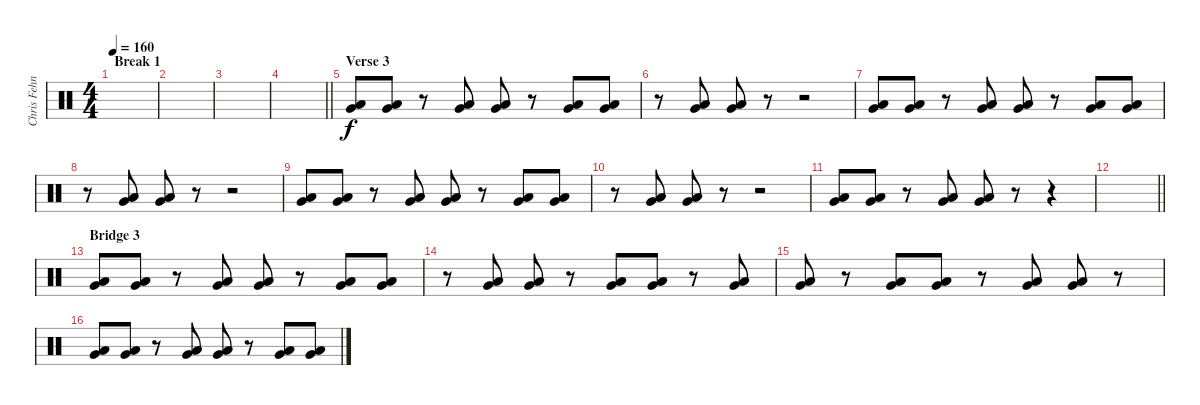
\track ("Chris Fehn" "Chris Fehn") {instrument percussion}
\staff {score}
\articulation defaults
\ts (4 4)
\section ("" "Break 1")
\tempo 160
\clef neutral
\ks c
|
|
|
\barLineRight lightlight
|
\section ("" "Verse 3")
("Very Low Tom (hit)" "Low Floor Tom (hit)").8 ("Very Low Tom (hit)" "Low Floor Tom (hit)").8 r.8 ("Very Low Tom (hit)" "Low Floor Tom (hit)").8 ("Very Low Tom (hit)" "Low Floor Tom (hit)").8 r.8 ("Very Low Tom (hit)" "Low Floor Tom (hit)").8 ("Very Low Tom (hit)" "Low Floor Tom (hit)").8 |
r.8 ("Very Low Tom (hit)" "Low Floor Tom (hit)").8 ("Very Low Tom (hit)" "Low Floor Tom (hit)").8 r.8 r.2 |
("Very Low Tom (hit)" "Low Floor Tom (hit)").8 ("Very Low Tom (hit)" "Low Floor Tom (hit)").8 r.8 ("Very Low Tom (hit)" "Low Floor Tom (hit)").8 ("Very Low Tom (hit)" "Low Floor Tom (hit)").8 r.8 ("Very Low Tom (hit)" "Low Floor Tom (hit)").8 ("Very Low Tom (hit)" "Low Floor Tom (hit)").8 |
r.8 ("Very Low Tom (hit)" "Low Floor Tom (hit)").8 ("Very Low Tom (hit)" "Low Floor Tom (hit)").8 r.8 r.2 |
("Very Low Tom (hit)" "Low Floor Tom (hit)").8 ("Very Low Tom (hit)" "Low Floor Tom (hit)").8 r.8 ("Very Low Tom (hit)" "Low Floor Tom (hit)").8 ("Very Low Tom (hit)" "Low Floor Tom (hit)").8 r.8 ("Very Low Tom (hit)" "Low Floor Tom (hit)").8 ("Very Low Tom (hit)" "Low Floor Tom (hit)").8 |
r.8 ("Very Low Tom (hit)" "Low Floor Tom (hit)").8 ("Very Low Tom (hit)" "Low Floor Tom (hit)").8 r.8 r.2 |
("Very Low Tom (hit)" "Low Floor Tom (hit)").8 ("Very Low Tom (hit)" "Low Floor Tom (hit)").8 r.8 ("Very Low Tom (hit)" "Low Floor Tom (hit)").8 ("Very Low Tom (hit)" "Low Floor Tom (hit)").8 r.8 r.4 |
\barLineRight lightlight
|
\section ("" "Bridge 3")
("Very Low Tom (hit)" "Low Floor Tom (hit)").8 ("Very Low Tom (hit)" "Low Floor Tom (hit)").8 r.8 ("Very Low Tom (hit)" "Low Floor Tom (hit)").8 ("Very Low Tom (hit)" "Low Floor Tom (hit)").8 r.8 ("Very Low Tom (hit)" "Low Floor Tom (hit)").8 ("Very Low Tom (hit)" "Low Floor Tom (hit)").8 |
r.8 ("Very Low Tom (hit)" "Low Floor Tom (hit)").8 ("Very Low Tom (hit)" "Low Floor Tom (hit)").8 r.8 ("Very Low Tom (hit)" "Low Floor Tom (hit)").8 ("Very Low Tom (hit)" "Low Floor Tom (hit)").8 r.8 ("Very Low Tom (hit)" "Low Floor Tom (hit)").8 |
("Very Low Tom (hit)" "Low Floor Tom (hit)").8 r.8 ("Very Low Tom (hit)" "Low Floor Tom (hit)").8 ("Very Low Tom (hit)" "Low Floor Tom (hit)").8 r.8 ("Very Low Tom (hit)" "Low Floor Tom (hit)").8 ("Very Low Tom (hit)" "Low Floor Tom (hit)").8 r.8 |
("Very Low Tom (hit)" "Low Floor Tom (hit)").8 ("Very Low Tom (hit)" "Low Floor Tom (hit)").8 r.8 ("Very Low Tom (hit)" "Low Floor Tom (hit)").8 ("Very Low Tom (hit)" "Low Floor Tom (hit)").8 r.8 ("Very Low Tom (hit)" "Low Floor Tom (hit)").8 ("Very Low Tom (hit)" "Low Floor Tom (hit)").8
